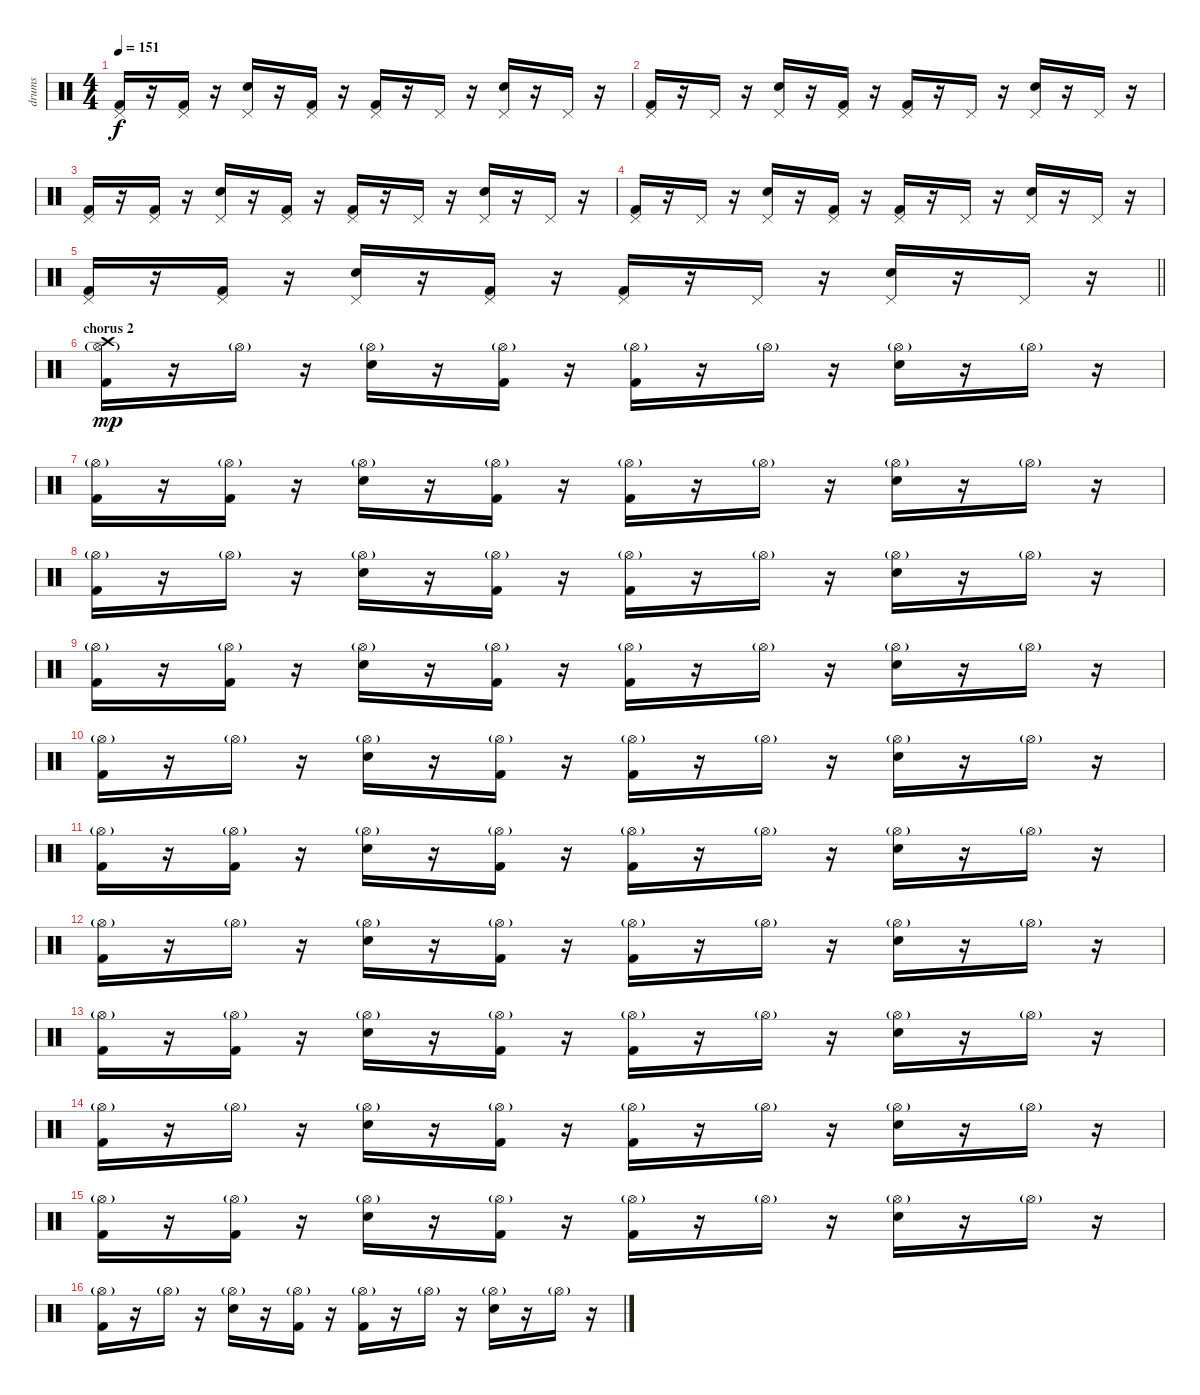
\track ("drums" "drums") {instrument percussion}
\staff {score}
\articulation defaults
\ts (4 4)
\tempo 151
\clef neutral
\ks c
("Kick (hit) 2" "Pedal Hi-Hat (hit)").16{dy f} r.16 ("Kick (hit) 2" "Pedal Hi-Hat (hit)").16 r.16 ("Electric Snare (hit)" "Pedal Hi-Hat (hit)").16 r.16 ("Kick (hit) 2" "Pedal Hi-Hat (hit)").16 r.16 ("Kick (hit) 2" "Pedal Hi-Hat (hit)").16 r.16 "Pedal Hi-Hat (hit)".16 r.16 ("Electric Snare (hit)" "Pedal Hi-Hat (hit)").16 r.16 "Pedal Hi-Hat (hit)".16 r.16 |
("Kick (hit) 2" "Pedal Hi-Hat (hit)").16 r.16 "Pedal Hi-Hat (hit)".16 r.16 ("Electric Snare (hit)" "Pedal Hi-Hat (hit)").16 r.16 ("Kick (hit) 2" "Pedal Hi-Hat (hit)").16 r.16 ("Kick (hit) 2" "Pedal Hi-Hat (hit)").16 r.16 "Pedal Hi-Hat (hit)".16 r.16 ("Electric Snare (hit)" "Pedal Hi-Hat (hit)").16 r.16 "Pedal Hi-Hat (hit)".16 r.16 |
("Kick (hit) 2" "Pedal Hi-Hat (hit)").16 r.16 ("Kick (hit) 2" "Pedal Hi-Hat (hit)").16 r.16 ("Electric Snare (hit)" "Pedal Hi-Hat (hit)").16 r.16 ("Kick (hit) 2" "Pedal Hi-Hat (hit)").16 r.16 ("Kick (hit) 2" "Pedal Hi-Hat (hit)").16 r.16 "Pedal Hi-Hat (hit)".16 r.16 ("Electric Snare (hit)" "Pedal Hi-Hat (hit)").16 r.16 "Pedal Hi-Hat (hit)".16 r.16 |
("Kick (hit) 2" "Pedal Hi-Hat (hit)").16 r.16 "Pedal Hi-Hat (hit)".16 r.16 ("Electric Snare (hit)" "Pedal Hi-Hat (hit)").16 r.16 ("Kick (hit) 2" "Pedal Hi-Hat (hit)").16 r.16 ("Kick (hit) 2" "Pedal Hi-Hat (hit)").16 r.16 "Pedal Hi-Hat (hit)".16 r.16 ("Electric Snare (hit)" "Pedal Hi-Hat (hit)").16 r.16 "Pedal Hi-Hat (hit)".16 r.16 |
\barLineRight lightlight
("Kick (hit) 2" "Pedal Hi-Hat (hit)").16 r.16 ("Kick (hit) 2" "Pedal Hi-Hat (hit)").16 r.16 ("Electric Snare (hit)" "Pedal Hi-Hat (hit)").16 r.16 ("Kick (hit) 2" "Pedal Hi-Hat (hit)").16 r.16 ("Kick (hit) 2" "Pedal Hi-Hat (hit)").16 r.16 "Pedal Hi-Hat (hit)".16 r.16 ("Electric Snare (hit)" "Pedal Hi-Hat (hit)").16 r.16 "Pedal Hi-Hat (hit)".16 r.16 |
\section ("" "chorus 2")
("Kick (hit) 2" "Hi-Hat (open)"{g} "Crash high (hit)").16{dy mp} r.16 "Hi-Hat (open)"{g}.16 r.16 ("Electric Snare (hit)" "Hi-Hat (open)"{g}).16 r.16 ("Kick (hit) 2" "Hi-Hat (open)"{g}).16 r.16 ("Kick (hit) 2" "Hi-Hat (open)"{g}).16 r.16 "Hi-Hat (open)"{g}.16 r.16 ("Electric Snare (hit)" "Hi-Hat (open)"{g}).16 r.16 "Hi-Hat (open)"{g}.16 r.16 |
("Kick (hit) 2" "Hi-Hat (open)"{g}).16 r.16 ("Kick (hit) 2" "Hi-Hat (open)"{g}).16 r.16 ("Electric Snare (hit)" "Hi-Hat (open)"{g}).16 r.16 ("Kick (hit) 2" "Hi-Hat (open)"{g}).16 r.16 ("Kick (hit) 2" "Hi-Hat (open)"{g}).16 r.16 "Hi-Hat (open)"{g}.16 r.16 ("Electric Snare (hit)" "Hi-Hat (open)"{g}).16 r.16 "Hi-Hat (open)"{g}.16 r.16 |
("Kick (hit) 2" "Hi-Hat (open)"{g}).16 r.16 "Hi-Hat (open)"{g}.16 r.16 ("Electric Snare (hit)" "Hi-Hat (open)"{g}).16 r.16 ("Kick (hit) 2" "Hi-Hat (open)"{g}).16 r.16 ("Kick (hit) 2" "Hi-Hat (open)"{g}).16 r.16 "Hi-Hat (open)"{g}.16 r.16 ("Electric Snare (hit)" "Hi-Hat (open)"{g}).16 r.16 "Hi-Hat (open)"{g}.16 r.16 |
("Kick (hit) 2" "Hi-Hat (open)"{g}).16 r.16 ("Kick (hit) 2" "Hi-Hat (open)"{g}).16 r.16 ("Electric Snare (hit)" "Hi-Hat (open)"{g}).16 r.16 ("Kick (hit) 2" "Hi-Hat (open)"{g}).16 r.16 ("Kick (hit) 2" "Hi-Hat (open)"{g}).16 r.16 "Hi-Hat (open)"{g}.16 r.16 ("Electric Snare (hit)" "Hi-Hat (open)"{g}).16 r.16 "Hi-Hat (open)"{g}.16 r.16 |
("Kick (hit) 2" "Hi-Hat (open)"{g}).16 r.16 "Hi-Hat (open)"{g}.16 r.16 ("Electric Snare (hit)" "Hi-Hat (open)"{g}).16 r.16 ("Kick (hit) 2" "Hi-Hat (open)"{g}).16 r.16 ("Kick (hit) 2" "Hi-Hat (open)"{g}).16 r.16 "Hi-Hat (open)"{g}.16 r.16 ("Electric Snare (hit)" "Hi-Hat (open)"{g}).16 r.16 "Hi-Hat (open)"{g}.16 r.16 |
("Kick (hit) 2" "Hi-Hat (open)"{g}).16 r.16 ("Kick (hit) 2" "Hi-Hat (open)"{g}).16 r.16 ("Electric Snare (hit)" "Hi-Hat (open)"{g}).16 r.16 ("Kick (hit) 2" "Hi-Hat (open)"{g}).16 r.16 ("Kick (hit) 2" "Hi-Hat (open)"{g}).16 r.16 "Hi-Hat (open)"{g}.16 r.16 ("Electric Snare (hit)" "Hi-Hat (open)"{g}).16 r.16 "Hi-Hat (open)"{g}.16 r.16 |
("Kick (hit) 2" "Hi-Hat (open)"{g}).16 r.16 "Hi-Hat (open)"{g}.16 r.16 ("Electric Snare (hit)" "Hi-Hat (open)"{g}).16 r.16 ("Kick (hit) 2" "Hi-Hat (open)"{g}).16 r.16 ("Kick (hit) 2" "Hi-Hat (open)"{g}).16 r.16 "Hi-Hat (open)"{g}.16 r.16 ("Electric Snare (hit)" "Hi-Hat (open)"{g}).16 r.16 "Hi-Hat (open)"{g}.16 r.16 |
("Kick (hit) 2" "Hi-Hat (open)"{g}).16 r.16 ("Kick (hit) 2" "Hi-Hat (open)"{g}).16 r.16 ("Electric Snare (hit)" "Hi-Hat (open)"{g}).16 r.16 ("Kick (hit) 2" "Hi-Hat (open)"{g}).16 r.16 ("Kick (hit) 2" "Hi-Hat (open)"{g}).16 r.16 "Hi-Hat (open)"{g}.16 r.16 ("Electric Snare (hit)" "Hi-Hat (open)"{g}).16 r.16 "Hi-Hat (open)"{g}.16 r.16 |
("Kick (hit) 2" "Hi-Hat (open)"{g}).16 r.16 "Hi-Hat (open)"{g}.16 r.16 ("Electric Snare (hit)" "Hi-Hat (open)"{g}).16 r.16 ("Kick (hit) 2" "Hi-Hat (open)"{g}).16 r.16 ("Kick (hit) 2" "Hi-Hat (open)"{g}).16 r.16 "Hi-Hat (open)"{g}.16 r.16 ("Electric Snare (hit)" "Hi-Hat (open)"{g}).16 r.16 "Hi-Hat (open)"{g}.16 r.16 |
("Kick (hit) 2" "Hi-Hat (open)"{g}).16 r.16 ("Kick (hit) 2" "Hi-Hat (open)"{g}).16 r.16 ("Electric Snare (hit)" "Hi-Hat (open)"{g}).16 r.16 ("Kick (hit) 2" "Hi-Hat (open)"{g}).16 r.16 ("Kick (hit) 2" "Hi-Hat (open)"{g}).16 r.16 "Hi-Hat (open)"{g}.16 r.16 ("Electric Snare (hit)" "Hi-Hat (open)"{g}).16 r.16 "Hi-Hat (open)"{g}.16 r.16 |
("Kick (hit) 2" "Hi-Hat (open)"{g}).16 r.16 "Hi-Hat (open)"{g}.16 r.16 ("Electric Snare (hit)" "Hi-Hat (open)"{g}).16 r.16 ("Kick (hit) 2" "Hi-Hat (open)"{g}).16 r.16 ("Kick (hit) 2" "Hi-Hat (open)"{g}).16 r.16 "Hi-Hat (open)"{g}.16 r.16 ("Electric Snare (hit)" "Hi-Hat (open)"{g}).16 r.16 "Hi-Hat (open)"{g}.16 r.16
